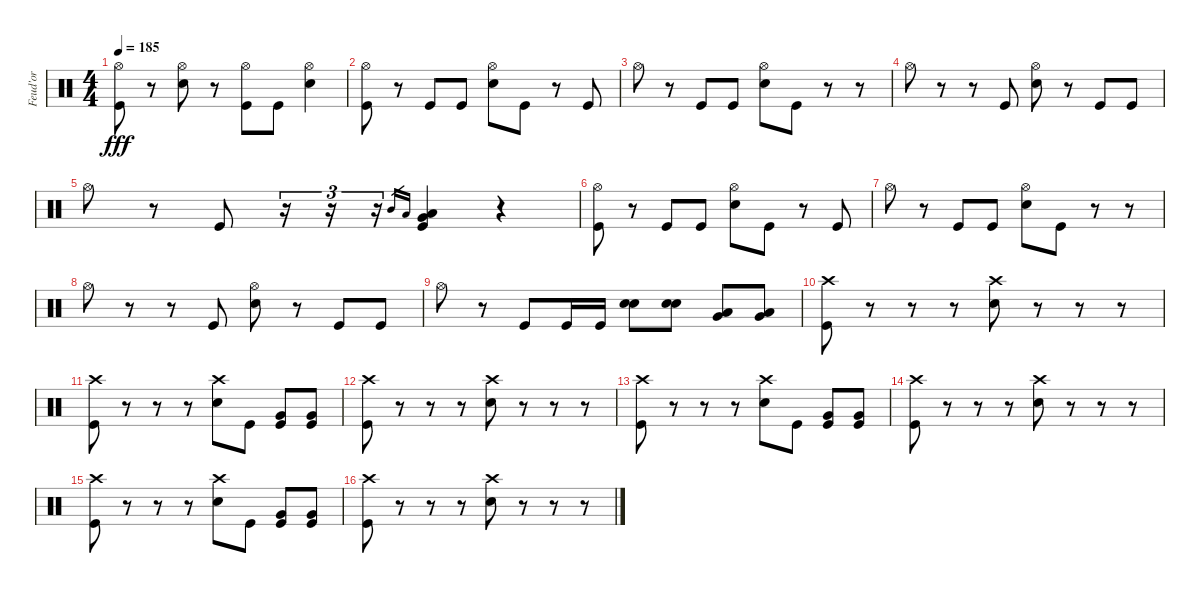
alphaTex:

\track ("Feud'or" "Feud'or") {instrument percussion}
\staff {score}
\articulation defaults
\ts (4 4)
\tempo 185
\clef neutral
\ks c
("Hi-Hat (open)" "Kick (hit)").8{dy fff} r.8 ("Hi-Hat (open)" "Snare (hit) 2").8 r.8 ("Hi-Hat (open)" "Kick (hit)").8 "Kick (hit)".8 ("Hi-Hat (open)" "Snare (hit) 2").4 |
("Hi-Hat (open)" "Kick (hit)").8 r.8 "Kick (hit)".8 "Kick (hit)".8 ("Hi-Hat (open)" "Snare (hit) 2").8 "Kick (hit)".8 r.8 "Kick (hit)".8 |
"Hi-Hat (open)".8 r.8 "Kick (hit)".8 "Kick (hit)".8 ("Hi-Hat (open)" "Snare (hit) 2").8 "Kick (hit)".8 r.8 r.8 |
"Hi-Hat (open)".8 r.8 r.8 "Kick (hit)".8 ("Hi-Hat (open)" "Snare (hit) 2").8 r.8 "Kick (hit)".8 "Kick (hit)".8 |
"Hi-Hat (open)".8 r.8 "Kick (hit)".8 r.16{tu (3 2)} r.16{tu (3 2)} r.16{tu (3 2)} "Mid Tom (hit)".16{gr} "Low Tom (hit)".16{gr} ("Low Tom (hit)" "Very Low Tom (hit)" "Kick (hit)").4 r.4 |
("Hi-Hat (open)" "Kick (hit)").8 r.8 "Kick (hit)".8 "Kick (hit)".8 ("Hi-Hat (open)" "Snare (hit) 2").8 "Kick (hit)".8 r.8 "Kick (hit)".8 |
"Hi-Hat (open)".8 r.8 "Kick (hit)".8 "Kick (hit)".8 ("Hi-Hat (open)" "Snare (hit) 2").8 "Kick (hit)".8 r.8 r.8 |
"Hi-Hat (open)".8 r.8 r.8 "Kick (hit)".8 ("Hi-Hat (open)" "Snare (hit) 2").8 r.8 "Kick (hit)".8 "Kick (hit)".8 |
"Hi-Hat (open)".8 r.8 "Kick (hit)".8 "Kick (hit)".16 "Kick (hit)".16 ("Electric Snare (hit)" "Snare (hit) 2").8 ("Electric Snare (hit)" "Snare (hit) 2").8 ("Low Tom (hit)" "Very Low Tom (hit)").8 ("Low Tom (hit)" "Very Low Tom (hit)").8 |
("Crash high (hit)" "Kick (hit)").8 r.8 r.8 r.8 ("Crash high (hit)" "Snare (hit) 2").8 r.8 r.8 r.8 |
("Crash high (hit)" "Kick (hit)").8 r.8 r.8 r.8 ("Crash high (hit)" "Snare (hit) 2").8 "Kick (hit)".8 ("Very Low Tom (hit)" "Kick (hit)").8 ("Very Low Tom (hit)" "Kick (hit)").8 |
("Crash high (hit)" "Kick (hit)").8 r.8 r.8 r.8 ("Crash high (hit)" "Snare (hit) 2").8 r.8 r.8 r.8 |
("Crash high (hit)" "Kick (hit)").8 r.8 r.8 r.8 ("Crash high (hit)" "Snare (hit) 2").8 "Kick (hit)".8 ("Very Low Tom (hit)" "Kick (hit)").8 ("Very Low Tom (hit)" "Kick (hit)").8 |
("Crash high (hit)" "Kick (hit)").8 r.8 r.8 r.8 ("Crash high (hit)" "Snare (hit) 2").8 r.8 r.8 r.8 |
("Crash high (hit)" "Kick (hit)").8 r.8 r.8 r.8 ("Crash high (hit)" "Snare (hit) 2").8 "Kick (hit)".8 ("Very Low Tom (hit)" "Kick (hit)").8 ("Very Low Tom (hit)" "Kick (hit)").8 |
("Crash high (hit)" "Kick (hit)").8 r.8 r.8 r.8 ("Crash high (hit)" "Snare (hit) 2").8 r.8 r.8 r.8
